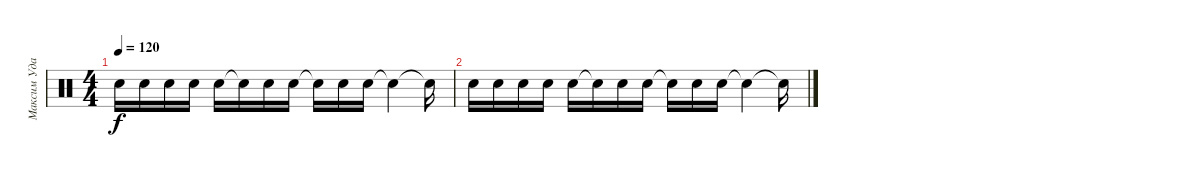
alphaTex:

\track ("Максим Удалов" "Максим Уда") {instrument percussion}
\staff {score}
\articulation defaults
\ts (4 4)
\tempo 120
\clef neutral
\ks c "Electric Snare (hit)".16{dy f} "Electric Snare (hit)".16 "Electric Snare (hit)".16 "Electric Snare (hit)".16 "Electric Snare (hit)".16 "Snare (hit)"{t}.16 "Electric Snare (hit)".16 "Electric Snare (hit)".16 "Snare (hit)"{t}.16 "Electric Snare (hit)".16 "Electric Snare (hit)".16 "Snare (hit)"{t}.4 "Snare (hit)"{t}.16
|
"Electric Snare (hit)".16 "Electric Snare (hit)".16 "Electric Snare (hit)".16 "Electric Snare (hit)".16 "Electric Snare (hit)".16 "Snare (hit)"{t}.16 "Electric Snare (hit)".16 "Electric Snare (hit)".16 "Snare (hit)"{t}.16 "Electric Snare (hit)".16 "Electric Snare (hit)".16 "Snare (hit)"{t}.4 "Snare (hit)"{t}.16
